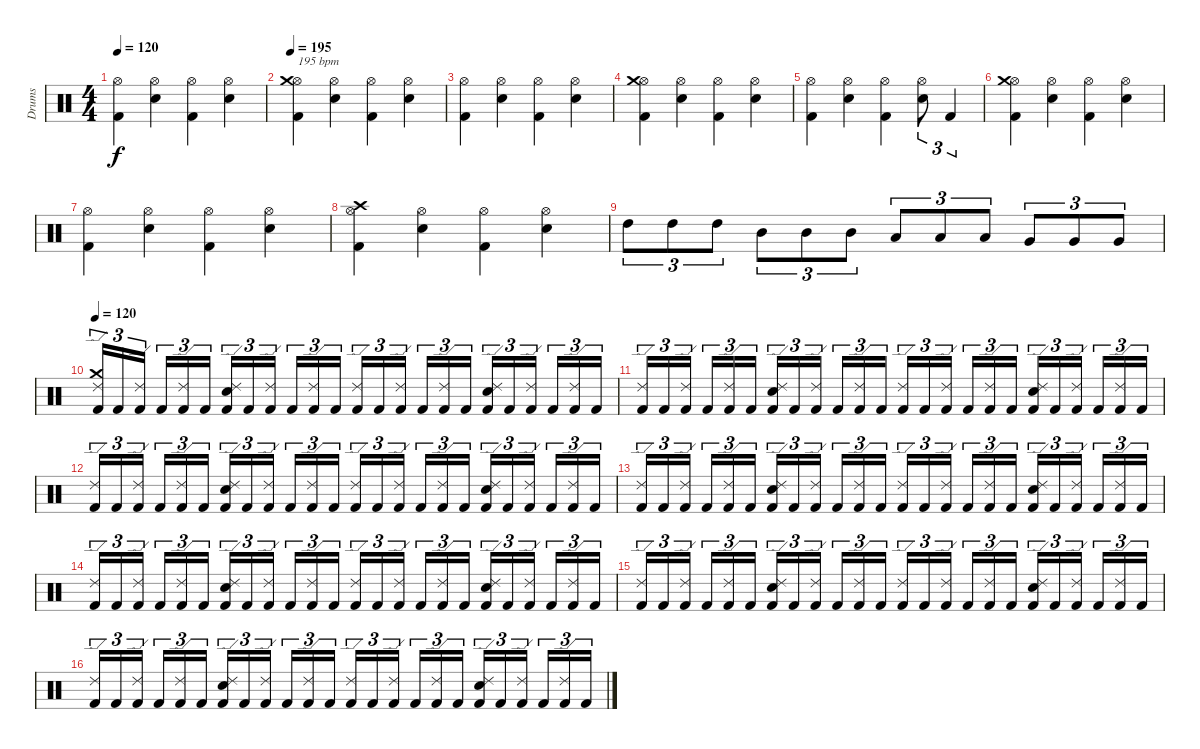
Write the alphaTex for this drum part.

\track ("Drums" "Drums") {instrument percussion}
\staff {score}
\articulation defaults
\ts (4 4)
\tempo 120
\clef neutral
\ks c
("Kick (hit) 2" "Hi-Hat (open)").4{dy f} ("Snare (hit) 2" "Hi-Hat (open)").4 ("Kick (hit) 2" "Hi-Hat (open)").4 ("Snare (hit) 2" "Hi-Hat (open)").4 |
\tempo 195
("Kick (hit) 2" "Hi-Hat (open)" "Crash medium (hit)").4{txt "195 bpm"} ("Snare (hit) 2" "Hi-Hat (open)").4 ("Kick (hit) 2" "Hi-Hat (open)").4 ("Snare (hit) 2" "Hi-Hat (open)").4 |
("Kick (hit) 2" "Hi-Hat (open)").4 ("Snare (hit) 2" "Hi-Hat (open)").4 ("Kick (hit) 2" "Hi-Hat (open)").4 ("Snare (hit) 2" "Hi-Hat (open)").4 |
("Kick (hit) 2" "Hi-Hat (open)" "Crash medium (hit)").4 ("Snare (hit) 2" "Hi-Hat (open)").4 ("Kick (hit) 2" "Hi-Hat (open)").4 ("Snare (hit) 2" "Hi-Hat (open)").4 |
("Kick (hit) 2" "Hi-Hat (open)").4 ("Snare (hit) 2" "Hi-Hat (open)").4 ("Kick (hit) 2" "Hi-Hat (open)").4 ("Snare (hit) 2" "Hi-Hat (open)").8{tu (3 2)} "Kick (hit) 2".4{tu (3 2)} |
("Kick (hit) 2" "Hi-Hat (open)" "Crash medium (hit)").4 ("Snare (hit) 2" "Hi-Hat (open)").4 ("Kick (hit) 2" "Hi-Hat (open)").4 ("Snare (hit) 2" "Hi-Hat (open)").4 |
("Kick (hit) 2" "Hi-Hat (open)").4 ("Snare (hit) 2" "Hi-Hat (open)").4 ("Kick (hit) 2" "Hi-Hat (open)").4 ("Snare (hit) 2" "Hi-Hat (open)").4 |
("Kick (hit) 2" "Hi-Hat (open)" "Crash high (hit)").4 ("Snare (hit) 2" "Hi-Hat (open)").4 ("Kick (hit) 2" "Hi-Hat (open)").4 ("Snare (hit) 2" "Hi-Hat (open)").4 |
"High Tom (hit)".8{tu (3 2)} "High Tom (hit)".8{tu (3 2)} "High Tom (hit)".8{tu (3 2)} "Mid Tom (hit)".8{tu (3 2)} "Mid Tom (hit)".8{tu (3 2)} "Mid Tom (hit)".8{tu (3 2)} "Low Tom (hit)".8{tu (3 2)} "Low Tom (hit)".8{tu (3 2)} "Low Tom (hit)".8{tu (3 2)} "Very Low Tom (hit)".8{tu (3 2)} "Very Low Tom (hit)".8{tu (3 2)} "Very Low Tom (hit)".8{tu (3 2)} |
\tempo 120
("Kick (hit) 2" "Ride (edge) 2" "Crash medium (hit)").16{tu (3 2)} "Kick (hit) 2".16{tu (3 2)} ("Kick (hit) 2" "Ride (edge) 2").16{tu (3 2)} "Kick (hit) 2".16{tu (3 2)} ("Kick (hit) 2" "Ride (edge) 2").16{tu (3 2)} "Kick (hit) 2".16{tu (3 2)} ("Kick (hit) 2" "Snare (hit) 2" "Ride (edge) 2").16{tu (3 2)} "Kick (hit) 2".16{tu (3 2)} ("Kick (hit) 2" "Ride (edge) 2").16{tu (3 2)} "Kick (hit) 2".16{tu (3 2)} ("Kick (hit) 2" "Ride (edge) 2").16{tu (3 2)} "Kick (hit) 2".16{tu (3 2)} ("Kick (hit) 2" "Ride (edge) 2").16{tu (3 2)} "Kick (hit) 2".16{tu (3 2)} ("Kick (hit) 2" "Ride (edge) 2").16{tu (3 2)} "Kick (hit) 2".16{tu (3 2)} ("Kick (hit) 2" "Ride (edge) 2").16{tu (3 2)} "Kick (hit) 2".16{tu (3 2)} ("Kick (hit) 2" "Snare (hit) 2" "Ride (edge) 2").16{tu (3 2)} "Kick (hit) 2".16{tu (3 2)} ("Kick (hit) 2" "Ride (edge) 2").16{tu (3 2)} "Kick (hit) 2".16{tu (3 2)} ("Kick (hit) 2" "Ride (edge) 2").16{tu (3 2)} "Kick (hit) 2".16{tu (3 2)} |
("Kick (hit) 2" "Ride (edge) 2").16{tu (3 2)} "Kick (hit) 2".16{tu (3 2)} ("Kick (hit) 2" "Ride (edge) 2").16{tu (3 2)} "Kick (hit) 2".16{tu (3 2)} ("Kick (hit) 2" "Ride (edge) 2").16{tu (3 2)} "Kick (hit) 2".16{tu (3 2)} ("Kick (hit) 2" "Snare (hit) 2" "Ride (edge) 2").16{tu (3 2)} "Kick (hit) 2".16{tu (3 2)} ("Kick (hit) 2" "Ride (edge) 2").16{tu (3 2)} "Kick (hit) 2".16{tu (3 2)} ("Kick (hit) 2" "Ride (edge) 2").16{tu (3 2)} "Kick (hit) 2".16{tu (3 2)} ("Kick (hit) 2" "Ride (edge) 2").16{tu (3 2)} "Kick (hit) 2".16{tu (3 2)} ("Kick (hit) 2" "Ride (edge) 2").16{tu (3 2)} "Kick (hit) 2".16{tu (3 2)} ("Kick (hit) 2" "Ride (edge) 2").16{tu (3 2)} "Kick (hit) 2".16{tu (3 2)} ("Kick (hit) 2" "Snare (hit) 2" "Ride (edge) 2").16{tu (3 2)} "Kick (hit) 2".16{tu (3 2)} ("Kick (hit) 2" "Ride (edge) 2").16{tu (3 2)} "Kick (hit) 2".16{tu (3 2)} ("Kick (hit) 2" "Ride (edge) 2").16{tu (3 2)} "Kick (hit) 2".16{tu (3 2)} |
("Kick (hit) 2" "Ride (edge) 2").16{tu (3 2)} "Kick (hit) 2".16{tu (3 2)} ("Kick (hit) 2" "Ride (edge) 2").16{tu (3 2)} "Kick (hit) 2".16{tu (3 2)} ("Kick (hit) 2" "Ride (edge) 2").16{tu (3 2)} "Kick (hit) 2".16{tu (3 2)} ("Kick (hit) 2" "Snare (hit) 2" "Ride (edge) 2").16{tu (3 2)} "Kick (hit) 2".16{tu (3 2)} ("Kick (hit) 2" "Ride (edge) 2").16{tu (3 2)} "Kick (hit) 2".16{tu (3 2)} ("Kick (hit) 2" "Ride (edge) 2").16{tu (3 2)} "Kick (hit) 2".16{tu (3 2)} ("Kick (hit) 2" "Ride (edge) 2").16{tu (3 2)} "Kick (hit) 2".16{tu (3 2)} ("Kick (hit) 2" "Ride (edge) 2").16{tu (3 2)} "Kick (hit) 2".16{tu (3 2)} ("Kick (hit) 2" "Ride (edge) 2").16{tu (3 2)} "Kick (hit) 2".16{tu (3 2)} ("Kick (hit) 2" "Snare (hit) 2" "Ride (edge) 2").16{tu (3 2)} "Kick (hit) 2".16{tu (3 2)} ("Kick (hit) 2" "Ride (edge) 2").16{tu (3 2)} "Kick (hit) 2".16{tu (3 2)} ("Kick (hit) 2" "Ride (edge) 2").16{tu (3 2)} "Kick (hit) 2".16{tu (3 2)} |
("Kick (hit) 2" "Ride (edge) 2").16{tu (3 2)} "Kick (hit) 2".16{tu (3 2)} ("Kick (hit) 2" "Ride (edge) 2").16{tu (3 2)} "Kick (hit) 2".16{tu (3 2)} ("Kick (hit) 2" "Ride (edge) 2").16{tu (3 2)} "Kick (hit) 2".16{tu (3 2)} ("Kick (hit) 2" "Snare (hit) 2" "Ride (edge) 2").16{tu (3 2)} "Kick (hit) 2".16{tu (3 2)} ("Kick (hit) 2" "Ride (edge) 2").16{tu (3 2)} "Kick (hit) 2".16{tu (3 2)} ("Kick (hit) 2" "Ride (edge) 2").16{tu (3 2)} "Kick (hit) 2".16{tu (3 2)} ("Kick (hit) 2" "Ride (edge) 2").16{tu (3 2)} "Kick (hit) 2".16{tu (3 2)} ("Kick (hit) 2" "Ride (edge) 2").16{tu (3 2)} "Kick (hit) 2".16{tu (3 2)} ("Kick (hit) 2" "Ride (edge) 2").16{tu (3 2)} "Kick (hit) 2".16{tu (3 2)} ("Kick (hit) 2" "Snare (hit) 2" "Ride (edge) 2").16{tu (3 2)} "Kick (hit) 2".16{tu (3 2)} ("Kick (hit) 2" "Ride (edge) 2").16{tu (3 2)} "Kick (hit) 2".16{tu (3 2)} ("Kick (hit) 2" "Ride (edge) 2").16{tu (3 2)} "Kick (hit) 2".16{tu (3 2)} |
("Kick (hit) 2" "Ride (edge) 2").16{tu (3 2)} "Kick (hit) 2".16{tu (3 2)} ("Kick (hit) 2" "Ride (edge) 2").16{tu (3 2)} "Kick (hit) 2".16{tu (3 2)} ("Kick (hit) 2" "Ride (edge) 2").16{tu (3 2)} "Kick (hit) 2".16{tu (3 2)} ("Kick (hit) 2" "Snare (hit) 2" "Ride (edge) 2").16{tu (3 2)} "Kick (hit) 2".16{tu (3 2)} ("Kick (hit) 2" "Ride (edge) 2").16{tu (3 2)} "Kick (hit) 2".16{tu (3 2)} ("Kick (hit) 2" "Ride (edge) 2").16{tu (3 2)} "Kick (hit) 2".16{tu (3 2)} ("Kick (hit) 2" "Ride (edge) 2").16{tu (3 2)} "Kick (hit) 2".16{tu (3 2)} ("Kick (hit) 2" "Ride (edge) 2").16{tu (3 2)} "Kick (hit) 2".16{tu (3 2)} ("Kick (hit) 2" "Ride (edge) 2").16{tu (3 2)} "Kick (hit) 2".16{tu (3 2)} ("Kick (hit) 2" "Snare (hit) 2" "Ride (edge) 2").16{tu (3 2)} "Kick (hit) 2".16{tu (3 2)} ("Kick (hit) 2" "Ride (edge) 2").16{tu (3 2)} "Kick (hit) 2".16{tu (3 2)} ("Kick (hit) 2" "Ride (edge) 2").16{tu (3 2)} "Kick (hit) 2".16{tu (3 2)} |
("Kick (hit) 2" "Ride (edge) 2").16{tu (3 2)} "Kick (hit) 2".16{tu (3 2)} ("Kick (hit) 2" "Ride (edge) 2").16{tu (3 2)} "Kick (hit) 2".16{tu (3 2)} ("Kick (hit) 2" "Ride (edge) 2").16{tu (3 2)} "Kick (hit) 2".16{tu (3 2)} ("Kick (hit) 2" "Snare (hit) 2" "Ride (edge) 2").16{tu (3 2)} "Kick (hit) 2".16{tu (3 2)} ("Kick (hit) 2" "Ride (edge) 2").16{tu (3 2)} "Kick (hit) 2".16{tu (3 2)} ("Kick (hit) 2" "Ride (edge) 2").16{tu (3 2)} "Kick (hit) 2".16{tu (3 2)} ("Kick (hit) 2" "Ride (edge) 2").16{tu (3 2)} "Kick (hit) 2".16{tu (3 2)} ("Kick (hit) 2" "Ride (edge) 2").16{tu (3 2)} "Kick (hit) 2".16{tu (3 2)} ("Kick (hit) 2" "Ride (edge) 2").16{tu (3 2)} "Kick (hit) 2".16{tu (3 2)} ("Kick (hit) 2" "Snare (hit) 2" "Ride (edge) 2").16{tu (3 2)} "Kick (hit) 2".16{tu (3 2)} ("Kick (hit) 2" "Ride (edge) 2").16{tu (3 2)} "Kick (hit) 2".16{tu (3 2)} ("Kick (hit) 2" "Ride (edge) 2").16{tu (3 2)} "Kick (hit) 2".16{tu (3 2)} |
("Kick (hit) 2" "Ride (edge) 2").16{tu (3 2)} "Kick (hit) 2".16{tu (3 2)} ("Kick (hit) 2" "Ride (edge) 2").16{tu (3 2)} "Kick (hit) 2".16{tu (3 2)} ("Kick (hit) 2" "Ride (edge) 2").16{tu (3 2)} "Kick (hit) 2".16{tu (3 2)} ("Kick (hit) 2" "Snare (hit) 2" "Ride (edge) 2").16{tu (3 2)} "Kick (hit) 2".16{tu (3 2)} ("Kick (hit) 2" "Ride (edge) 2").16{tu (3 2)} "Kick (hit) 2".16{tu (3 2)} ("Kick (hit) 2" "Ride (edge) 2").16{tu (3 2)} "Kick (hit) 2".16{tu (3 2)} ("Kick (hit) 2" "Ride (edge) 2").16{tu (3 2)} "Kick (hit) 2".16{tu (3 2)} ("Kick (hit) 2" "Ride (edge) 2").16{tu (3 2)} "Kick (hit) 2".16{tu (3 2)} ("Kick (hit) 2" "Ride (edge) 2").16{tu (3 2)} "Kick (hit) 2".16{tu (3 2)} ("Kick (hit) 2" "Snare (hit) 2" "Ride (edge) 2").16{tu (3 2)} "Kick (hit) 2".16{tu (3 2)} ("Kick (hit) 2" "Ride (edge) 2").16{tu (3 2)} "Kick (hit) 2".16{tu (3 2)} ("Kick (hit) 2" "Ride (edge) 2").16{tu (3 2)} "Kick (hit) 2".16{tu (3 2)}
